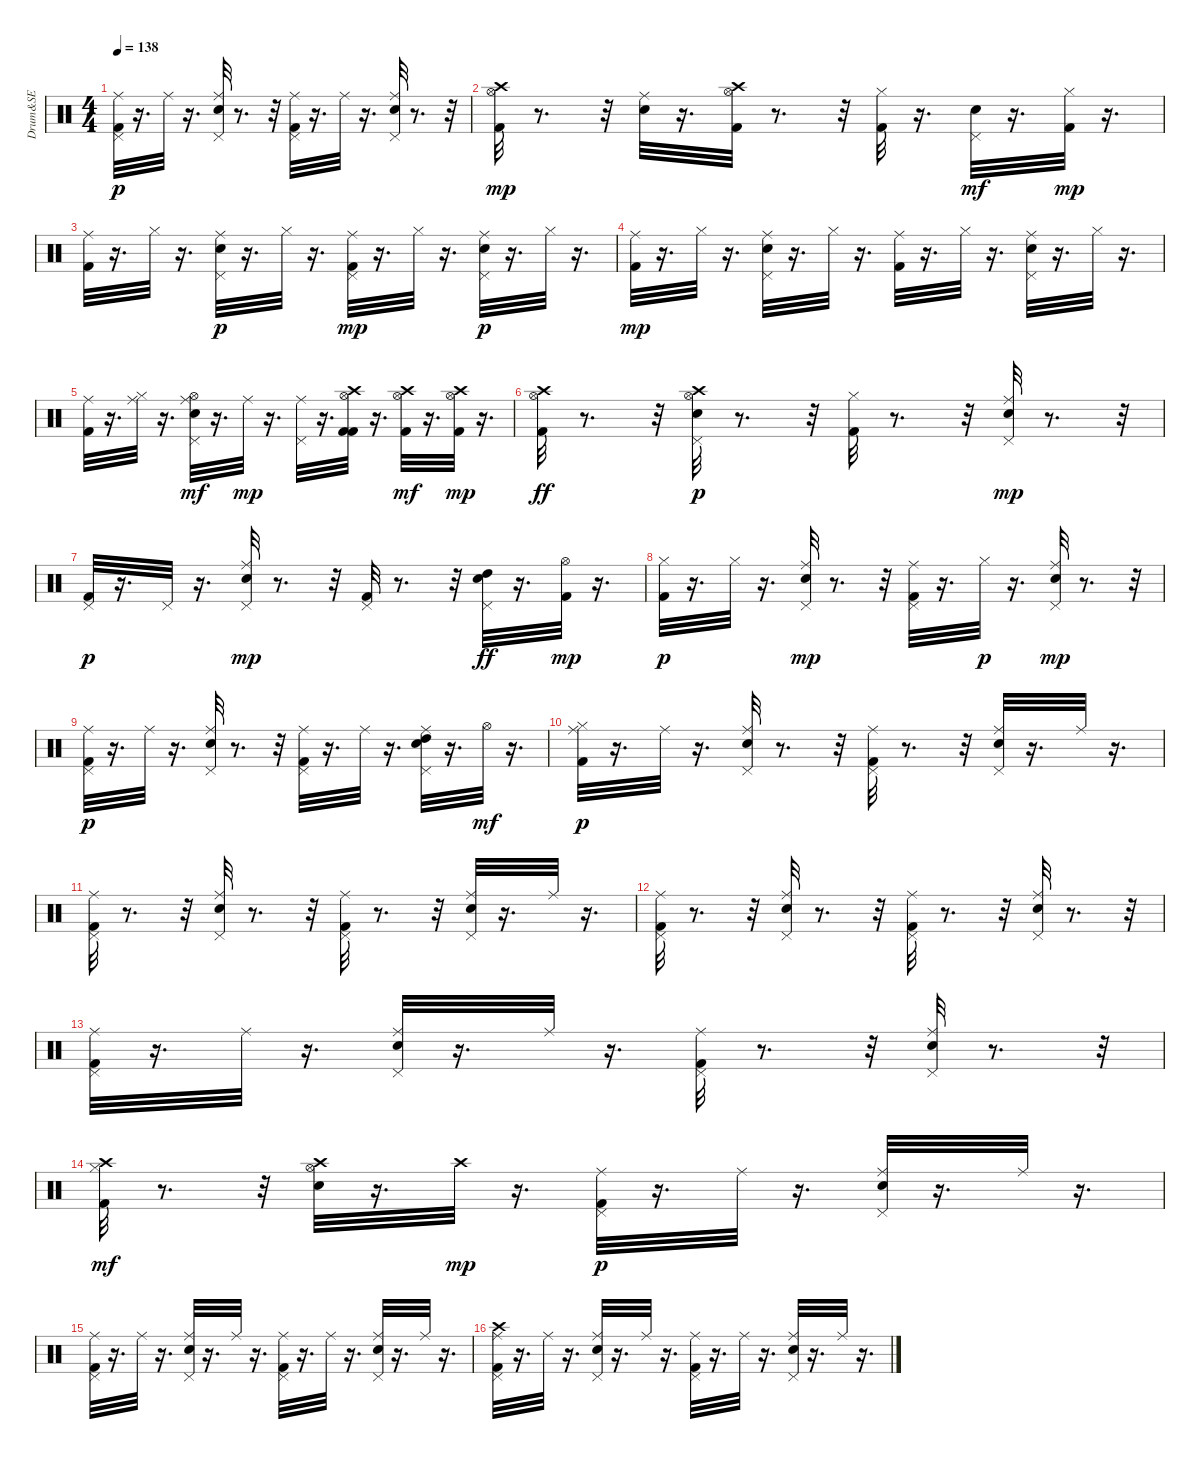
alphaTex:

\track ("Drum&SE" "Drum&SE") {instrument percussion}
\staff {score}
\articulation defaults
\ts (4 4)
\tempo 138
\clef neutral
\ks c
("Kick (hit) 2" "Pedal Hi-Hat (hit)" "Ride (middle)").32{dy p} r.16{d} "Ride (middle)".32 r.16{d} ("Snare (hit) 2" "Pedal Hi-Hat (hit)" "Ride (middle)").32 r.8{d} r.32 ("Kick (hit) 2" "Pedal Hi-Hat (hit)" "Ride (middle)").32 r.16{d} "Ride (middle)".32 r.16{d} ("Snare (hit) 2" "Pedal Hi-Hat (hit)" "Ride (middle)").32 r.8{d} r.32 |
("Kick (hit) 2" "Hi-Hat (open)" "Crash high (hit)").32{dy mp} r.8{d} r.32 ("Snare (hit) 2" "Ride (middle)").32 r.16{d} ("Kick (hit) 2" "Hi-Hat (open)" "Crash high (hit)").32 r.8{d} r.32 ("Kick (hit) 2" "Hi-Hat (closed)").32 r.16{d} ("Snare (hit) 2" "Pedal Hi-Hat (hit)").32{dy mf} r.16{d} ("Kick (hit) 2" "Hi-Hat (closed)").32{dy mp} r.16{d} |
("Kick (hit) 2" "Ride (middle)").32 r.16{d} "Hi-Hat (closed)".32 r.16{d} ("Snare (hit) 2" "Pedal Hi-Hat (hit)" "Ride (middle)").32{dy p} r.16{d} "Hi-Hat (closed)".32 r.16{d} ("Kick (hit) 2" "Pedal Hi-Hat (hit)" "Ride (middle)").32{dy mp} r.16{d} "Hi-Hat (closed)".32 r.16{d} ("Snare (hit) 2" "Pedal Hi-Hat (hit)" "Ride (middle)").32{dy p} r.16{d} "Hi-Hat (closed)".32 r.16{d} |
("Kick (hit) 2" "Ride (middle)").32{dy mp} r.16{d} "Hi-Hat (closed)".32 r.16{d} ("Snare (hit) 2" "Pedal Hi-Hat (hit)" "Ride (middle)").32 r.16{d} "Hi-Hat (closed)".32 r.16{d} ("Kick (hit) 2" "Ride (middle)").32 r.16{d} "Hi-Hat (closed)".32 r.16{d} ("Snare (hit) 2" "Pedal Hi-Hat (hit)" "Ride (middle)").32 r.16{d} "Hi-Hat (closed)".32 r.16{d} |
("Kick (hit) 2" "Ride (middle)").32 r.16{d} ("Hi-Hat (closed)" "Ride (middle)").32 r.16{d} ("Snare (hit) 2" "Pedal Hi-Hat (hit)" "Hi-Hat (open)" "Ride (middle)").32{dy mf} r.16{d} "Ride (middle)".32{dy mp} r.16{d} ("Pedal Hi-Hat (hit)" "Ride (middle)").32 r.16{d} ("Kick (hit) 2" "Kick (hit) 2" "Hi-Hat (open)" "Crash high (hit)").32 r.16{d} ("Kick (hit) 2" "Hi-Hat (open)" "Crash high (hit)").32{dy mf} r.16{d} ("Kick (hit) 2" "Hi-Hat (open)" "Crash high (hit)").32{dy mp} r.16{d} |
("Kick (hit) 2" "Hi-Hat (open)" "Crash high (hit)").32{dy ff} r.8{d} r.32 ("Snare (hit) 2" "Pedal Hi-Hat (hit)" "Hi-Hat (open)" "Crash high (hit)").32{dy p} r.8{d} r.32 ("Kick (hit) 2" "Hi-Hat (closed)").32 r.8{d} r.32 ("Snare (hit) 2" "Pedal Hi-Hat (hit)" "Ride (middle)").32{dy mp} r.8{d} r.32 |
("Kick (hit) 2" "Pedal Hi-Hat (hit)").32{dy p} r.16{d} "Pedal Hi-Hat (hit)".32 r.16{d} ("Snare (hit) 2" "Pedal Hi-Hat (hit)" "Ride (middle)").32{dy mp} r.8{d} r.32 ("Kick (hit) 2" "Pedal Hi-Hat (hit)").32 r.8{d} r.32 ("Snare (hit) 2" "Pedal Hi-Hat (hit)" "High Tom (hit)").32{dy ff} r.16{d} ("Kick (hit) 2" "Hi-Hat (open)").32{dy mp} r.16{d} |
("Kick (hit) 2" "Hi-Hat (closed)").32{dy p} r.16{d} "Hi-Hat (closed)".32 r.16{d} ("Snare (hit) 2" "Pedal Hi-Hat (hit)" "Ride (middle)").32{dy mp} r.8{d} r.32 ("Kick (hit) 2" "Pedal Hi-Hat (hit)" "Ride (middle)").32 r.16{d} "Hi-Hat (closed)".32{dy p} r.16{d} ("Snare (hit) 2" "Pedal Hi-Hat (hit)" "Ride (middle)").32{dy mp} r.8{d} r.32 |
("Kick (hit) 2" "Pedal Hi-Hat (hit)" "Ride (middle)").32{dy p} r.16{d} "Ride (middle)".32 r.16{d} ("Snare (hit) 2" "Pedal Hi-Hat (hit)" "Ride (middle)").32 r.8{d} r.32 ("Kick (hit) 2" "Pedal Hi-Hat (hit)" "Ride (middle)").32 r.16{d} "Ride (middle)".32 r.16{d} ("Snare (hit) 2" "Pedal Hi-Hat (hit)" "High Tom (hit)" "Ride (middle)").32 r.16{d} "Hi-Hat (open)".32{dy mf} r.16{d} |
("Kick (hit) 2" "Hi-Hat (closed)" "Ride (middle)").32{dy p} r.16{d} "Ride (middle)".32 r.16{d} ("Snare (hit) 2" "Pedal Hi-Hat (hit)" "Ride (middle)").32 r.8{d} r.32 ("Kick (hit) 2" "Pedal Hi-Hat (hit)" "Ride (middle)").32 r.8{d} r.32 ("Snare (hit) 2" "Pedal Hi-Hat (hit)" "Ride (middle)").32 r.16{d} "Ride (middle)".32 r.16{d} |
("Kick (hit) 2" "Pedal Hi-Hat (hit)" "Ride (middle)").32 r.8{d} r.32 ("Snare (hit) 2" "Pedal Hi-Hat (hit)" "Ride (middle)").32 r.8{d} r.32 ("Kick (hit) 2" "Pedal Hi-Hat (hit)" "Ride (middle)").32 r.8{d} r.32 ("Snare (hit) 2" "Pedal Hi-Hat (hit)" "Ride (middle)").32 r.16{d} "Ride (middle)".32 r.16{d} |
("Kick (hit) 2" "Pedal Hi-Hat (hit)" "Ride (middle)").32 r.8{d} r.32 ("Snare (hit) 2" "Pedal Hi-Hat (hit)" "Ride (middle)").32 r.8{d} r.32 ("Kick (hit) 2" "Pedal Hi-Hat (hit)" "Ride (middle)").32 r.8{d} r.32 ("Snare (hit) 2" "Pedal Hi-Hat (hit)" "Ride (middle)").32 r.8{d} r.32 |
("Kick (hit) 2" "Pedal Hi-Hat (hit)" "Ride (middle)").32 r.16{d} "Ride (middle)".32 r.16{d} ("Snare (hit) 2" "Pedal Hi-Hat (hit)" "Ride (middle)").32 r.16{d} "Ride (middle)".32 r.16{d} ("Kick (hit) 2" "Pedal Hi-Hat (hit)" "Ride (middle)").32 r.8{d} r.32 ("Snare (hit) 2" "Pedal Hi-Hat (hit)" "Ride (middle)").32 r.8{d} r.32 |
("Kick (hit) 2" "Hi-Hat (closed)" "Crash high (hit)").32{dy mf} r.8{d} r.32 ("Snare (hit) 2" "Hi-Hat (open)" "Crash high (hit)").32 r.16{d} "Crash high (hit)".32{dy mp} r.16{d} ("Pedal Hi-Hat (hit)" "Kick (hit) 2" "Ride (middle)").32{dy p} r.16{d} "Ride (middle)".32 r.16{d} ("Pedal Hi-Hat (hit)" "Snare (hit) 2" "Ride (middle)").32 r.16{d} "Ride (middle)".32 r.16{d} |
("Kick (hit) 2" "Pedal Hi-Hat (hit)" "Ride (middle)").32 r.16{d} "Ride (middle)".32 r.16{d} ("Snare (hit) 2" "Pedal Hi-Hat (hit)" "Ride (middle)").32 r.16{d} "Ride (middle)".32 r.16{d} ("Kick (hit) 2" "Pedal Hi-Hat (hit)" "Ride (middle)").32 r.16{d} "Ride (middle)".32 r.16{d} ("Snare (hit) 2" "Pedal Hi-Hat (hit)" "Ride (middle)").32 r.16{d} "Ride (middle)".32 r.16{d} |
("Kick (hit) 2" "Pedal Hi-Hat (hit)" "Crash high (hit)" "Ride (middle)").32 r.16{d} "Ride (middle)".32 r.16{d} ("Snare (hit) 2" "Pedal Hi-Hat (hit)" "Ride (middle)").32 r.16{d} "Ride (middle)".32 r.16{d} ("Kick (hit) 2" "Pedal Hi-Hat (hit)" "Ride (middle)").32 r.16{d} "Ride (middle)".32 r.16{d} ("Snare (hit) 2" "Pedal Hi-Hat (hit)" "Ride (middle)").32 r.16{d} "Ride (middle)".32 r.16{d}
